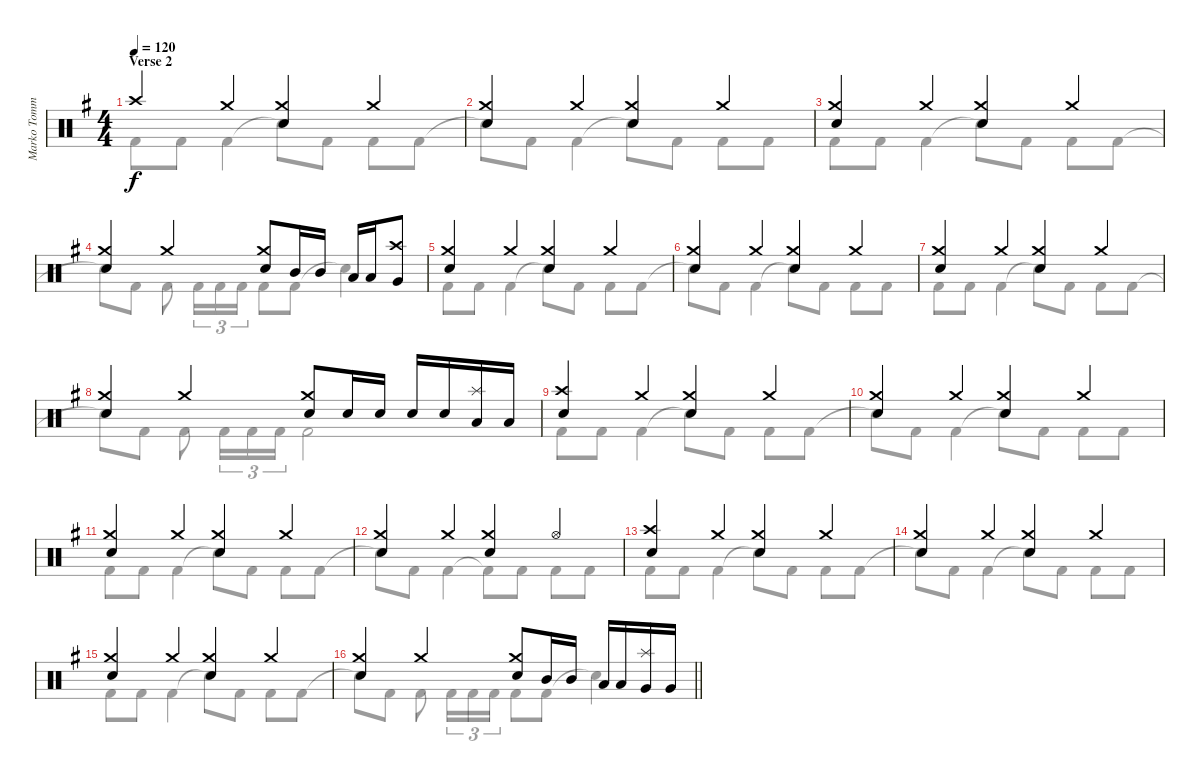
\track ("Marko Tommila (drums)" "Marko Tomm") {instrument percussion}
\staff {score}
\articulation defaults
\voice
\ts (4 4)
\section ("" "Verse 2")
\tempo 120
\clef neutral
\ks eminor "Crash high (hit)".4{dy f} "Crash medium (hit)".4
("Crash medium (hit)" "Electric Snare (hit)").4 "Crash medium (hit)".4 |
("Crash medium (hit)" "Electric Snare (hit)").4 "Crash medium (hit)".4 ("Crash medium (hit)" "Electric Snare (hit)").4 "Crash medium (hit)".4 |
("Crash medium (hit)" "Electric Snare (hit)").4 "Crash medium (hit)".4 ("Crash medium (hit)" "Electric Snare (hit)").4 "Crash medium (hit)".4 |
("Crash medium (hit)" "Electric Snare (hit)").4 "Crash medium (hit)".4 ("Crash medium (hit)" "Electric Snare (hit)").8 "Mid Tom (hit)".16 "Mid Tom (hit)".16 "Low Tom (hit)".16 "Low Tom (hit)".16 ("Very Low Tom (hit)" "Crash high (hit)").8 |
("Crash medium (hit)" "Electric Snare (hit)").4 "Crash medium (hit)".4 ("Crash medium (hit)" "Electric Snare (hit)").4 "Crash medium (hit)".4 |
("Crash medium (hit)" "Electric Snare (hit)").4 "Crash medium (hit)".4 ("Crash medium (hit)" "Electric Snare (hit)").4 "Crash medium (hit)".4 |
("Crash medium (hit)" "Electric Snare (hit)").4 "Crash medium (hit)".4 ("Crash medium (hit)" "Electric Snare (hit)").4 "Crash medium (hit)".4 |
("Crash medium (hit)" "Electric Snare (hit)").4 "Crash medium (hit)".4 ("Crash medium (hit)" "Electric Snare (hit)").8 "Electric Snare (hit)".16 "Electric Snare (hit)".16 "Electric Snare (hit)".16 "Electric Snare (hit)".16 ("Low Tom (hit)" "Splash (hit)").16 "Low Tom (hit)".16 |
("Crash high (hit)" "Electric Snare (hit)").4 "Crash medium (hit)".4 ("Crash medium (hit)" "Electric Snare (hit)").4 "Crash medium (hit)".4 |
("Crash medium (hit)" "Electric Snare (hit)").4 "Crash medium (hit)".4 ("Crash medium (hit)" "Electric Snare (hit)").4 "Crash medium (hit)".4 |
("Crash medium (hit)" "Electric Snare (hit)").4 "Crash medium (hit)".4 ("Crash medium (hit)" "Electric Snare (hit)").4 "Crash medium (hit)".4 |
("Crash medium (hit)" "Electric Snare (hit)").4 "Crash medium (hit)".4 ("Crash medium (hit)" "Electric Snare (hit)").4 "Hi-Hat (open)".4 |
("Crash high (hit)" "Electric Snare (hit)").4 "Crash medium (hit)".4 ("Crash medium (hit)" "Electric Snare (hit)").4 "Crash medium (hit)".4 |
("Crash medium (hit)" "Electric Snare (hit)").4 "Crash medium (hit)".4 ("Crash medium (hit)" "Electric Snare (hit)").4 "Crash medium (hit)".4 |
("Crash medium (hit)" "Electric Snare (hit)").4 "Crash medium (hit)".4 ("Crash medium (hit)" "Electric Snare (hit)").4 "Crash medium (hit)".4 |
\barLineRight lightlight
("Crash medium (hit)" "Electric Snare (hit)").4 "Crash medium (hit)".4 ("Crash medium (hit)" "Electric Snare (hit)").8 "Mid Tom (hit)".16 "Mid Tom (hit)".16 "Low Tom (hit)".16 "Low Tom (hit)".16 ("Very Low Tom (hit)" "Splash (hit)").16 "Very Low Tom (hit)".16
\voice
\clef neutral
\ottava regular
\simile none
\ks eminor "Kick (hit) 2".8{dy f} "Kick (hit) 2".8 "Kick (hit) 2".4 "Snare (hit)"{t}.8 "Kick (hit) 2".8 "Kick (hit) 2".8 "Kick (hit) 2".8
|
"Snare (hit)"{t}.8 "Kick (hit) 2".8 "Kick (hit) 2".4 "Snare (hit)"{t}.8 "Kick (hit) 2".8 "Kick (hit) 2".8 "Kick (hit) 2".8 |
"Kick (hit) 2".8 "Kick (hit) 2".8 "Kick (hit) 2".4 "Snare (hit)"{t}.8 "Kick (hit) 2".8 "Kick (hit) 2".8 "Kick (hit) 2".8 |
"Snare (hit)"{t}.8 "Kick (hit) 2".8 "Kick (hit) 2".8 "Kick (hit) 2".16{tu (3 2)} "Kick (hit) 2".16{tu (3 2)} "Kick (hit) 2".16{tu (3 2)} "Kick (hit) 2".8 "Kick (hit) 2".8 "Snare (hit)"{t}.4 |
"Kick (hit) 2".8 "Kick (hit) 2".8 "Kick (hit) 2".4 "Snare (hit)"{t}.8 "Kick (hit) 2".8 "Kick (hit) 2".8 "Kick (hit) 2".8 |
"Snare (hit)"{t}.8 "Kick (hit) 2".8 "Kick (hit) 2".4 "Snare (hit)"{t}.8 "Kick (hit) 2".8 "Kick (hit) 2".8 "Kick (hit) 2".8 |
"Kick (hit) 2".8 "Kick (hit) 2".8 "Kick (hit) 2".4 "Snare (hit)"{t}.8 "Kick (hit) 2".8 "Kick (hit) 2".8 "Kick (hit) 2".8 |
"Snare (hit)"{t}.8 "Kick (hit) 2".8 "Kick (hit) 2".8 "Kick (hit) 2".16{tu (3 2)} "Kick (hit) 2".16{tu (3 2)} "Kick (hit) 2".16{tu (3 2)} "Kick (hit) 2".2 |
"Kick (hit) 2".8 "Kick (hit) 2".8 "Kick (hit) 2".4 "Snare (hit)"{t}.8 "Kick (hit) 2".8 "Kick (hit) 2".8 "Kick (hit) 2".8 |
"Snare (hit)"{t}.8 "Kick (hit) 2".8 "Kick (hit) 2".4 "Snare (hit)"{t}.8 "Kick (hit) 2".8 "Kick (hit) 2".8 "Kick (hit) 2".8 |
"Kick (hit) 2".8 "Kick (hit) 2".8 "Kick (hit) 2".4 "Snare (hit)"{t}.8 "Kick (hit) 2".8 "Kick (hit) 2".8 "Kick (hit) 2".8 |
"Snare (hit)"{t}.8 "Kick (hit) 2".8 "Kick (hit) 2".4 "Kick (hit) 2"{t}.8 "Kick (hit) 2".8 "Kick (hit) 2".8 "Kick (hit) 2".8 |
"Kick (hit) 2".8 "Kick (hit) 2".8 "Kick (hit) 2".4 "Snare (hit)"{t}.8 "Kick (hit) 2".8 "Kick (hit) 2".8 "Kick (hit) 2".8 |
"Snare (hit)"{t}.8 "Kick (hit) 2".8 "Kick (hit) 2".4 "Snare (hit)"{t}.8 "Kick (hit) 2".8 "Kick (hit) 2".8 "Kick (hit) 2".8 |
"Kick (hit) 2".8 "Kick (hit) 2".8 "Kick (hit) 2".4 "Snare (hit)"{t}.8 "Kick (hit) 2".8 "Kick (hit) 2".8 "Kick (hit) 2".8 |
\barLineRight lightlight "Snare (hit)"{t}.8 "Kick (hit) 2".8 "Kick (hit) 2".8 "Kick (hit) 2".16{tu (3 2)} "Kick (hit) 2".16{tu (3 2)} "Kick (hit) 2".16{tu (3 2)} "Kick (hit) 2".8 "Kick (hit) 2".8 "Snare (hit)"{t}.4
